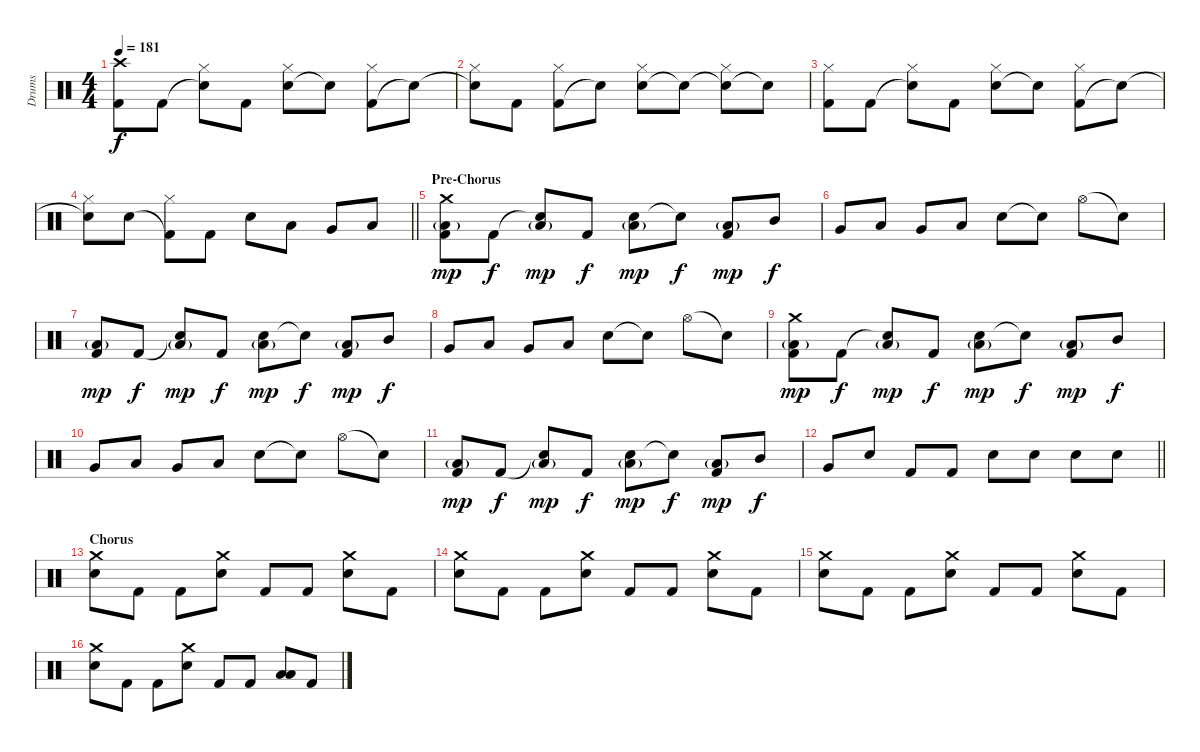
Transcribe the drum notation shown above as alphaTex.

\track ("Drums" "Drums") {instrument percussion}
\staff {score}
\articulation defaults
\ts (4 4)
\tempo 181
\clef neutral
\ks c
("Kick (hit) 2" "Crash high (hit)").8{dy f} "Kick (hit) 2".8 ("Snare (hit)"{t} "Hi-Hat (closed)").8 "Kick (hit) 2".8 ("Electric Snare (hit)" "Hi-Hat (closed)").8 "Snare (hit)"{t}.8 ("Kick (hit) 2" "Hi-Hat (closed)").8 "Snare (hit)"{t}.8 |
("Snare (hit)"{t} "Hi-Hat (closed)").8 "Kick (hit) 2".8 ("Kick (hit) 2" "Hi-Hat (closed)").8 "Snare (hit)"{t}.8 ("Electric Snare (hit)" "Hi-Hat (closed)").8 "Snare (hit)"{t}.8 ("Snare (hit)"{t} "Hi-Hat (closed)").8 "Snare (hit)"{t}.8 |
("Kick (hit) 2" "Hi-Hat (closed)").8 "Kick (hit) 2".8 ("Snare (hit)"{t} "Hi-Hat (closed)").8 "Kick (hit) 2".8 ("Electric Snare (hit)" "Hi-Hat (closed)").8 "Snare (hit)"{t}.8 ("Kick (hit) 2" "Hi-Hat (closed)").8 "Snare (hit)"{t}.8 |
\barLineRight lightlight
("Snare (hit)"{t} "Hi-Hat (closed)").8 "Electric Snare (hit)".8 ("Kick (hit) 2"{t} "Hi-Hat (closed)").8 "Kick (hit) 2".8 "Electric Snare (hit)".8 "Low Tom (hit)".8 "Very Low Tom (hit)".8 "Low Floor Tom (hit)".8 |
\section ("" "Pre-Chorus")
("Kick (hit) 2" "Low Floor Tom (hit)"{g} "Crash medium (hit)").8{dy mp} "Kick (hit) 2".8{dy f} ("Snare (hit)"{t} "Low Floor Tom (hit)"{g}).8{dy mp} "Kick (hit) 2".8{dy f} ("Electric Snare (hit)" "Low Floor Tom (hit)"{g}).8{dy mp} "Snare (hit)"{t}.8{dy f} ("Kick (hit) 2" "Low Floor Tom (hit)"{g}).8{dy mp} "Mid Tom (hit)".8{dy f} |
"Very Low Tom (hit)".8 "Low Tom (hit)".8 "Very Low Tom (hit)".8 "Low Floor Tom (hit)".8 "Electric Snare (hit)".8 "Snare (hit)"{t}.8 "Hi-Hat (open)".8 "Snare (hit)"{t}.8 |
("Kick (hit) 2" "Low Floor Tom (hit)"{g}).8{dy mp} "Kick (hit) 2".8{dy f} ("Snare (hit)"{t} "Low Floor Tom (hit)"{g}).8{dy mp} "Kick (hit) 2".8{dy f} ("Electric Snare (hit)" "Low Floor Tom (hit)"{g}).8{dy mp} "Snare (hit)"{t}.8{dy f} ("Kick (hit) 2" "Low Floor Tom (hit)"{g}).8{dy mp} "Mid Tom (hit)".8{dy f} |
"Very Low Tom (hit)".8 "Low Tom (hit)".8 "Very Low Tom (hit)".8 "Low Floor Tom (hit)".8 "Electric Snare (hit)".8 "Snare (hit)"{t}.8 "Hi-Hat (open)".8 "Snare (hit)"{t}.8 |
("Kick (hit) 2" "Low Floor Tom (hit)"{g} "Crash medium (hit)").8{dy mp} "Kick (hit) 2".8{dy f} ("Snare (hit)"{t} "Low Floor Tom (hit)"{g}).8{dy mp} "Kick (hit) 2".8{dy f} ("Electric Snare (hit)" "Low Floor Tom (hit)"{g}).8{dy mp} "Snare (hit)"{t}.8{dy f} ("Kick (hit) 2" "Low Floor Tom (hit)"{g}).8{dy mp} "Mid Tom (hit)".8{dy f} |
"Very Low Tom (hit)".8 "Low Tom (hit)".8 "Very Low Tom (hit)".8 "Low Floor Tom (hit)".8 "Electric Snare (hit)".8 "Snare (hit)"{t}.8 "Hi-Hat (open)".8 "Snare (hit)"{t}.8 |
("Kick (hit) 2" "Low Floor Tom (hit)"{g}).8{dy mp} "Kick (hit) 2".8{dy f} ("Snare (hit)"{t} "Low Floor Tom (hit)"{g}).8{dy mp} "Kick (hit) 2".8{dy f} ("Electric Snare (hit)" "Low Floor Tom (hit)"{g}).8{dy mp} "Snare (hit)"{t}.8{dy f} ("Kick (hit) 2" "Low Floor Tom (hit)"{g}).8{dy mp} "Mid Tom (hit)".8{dy f} |
\barLineRight lightlight "Very Low Tom (hit)".8 "Electric Snare (hit)".8 "Kick (hit) 2".8 "Kick (hit) 2".8 "Electric Snare (hit)".8 "Electric Snare (hit)".8 "Electric Snare (hit)".8 "Electric Snare (hit)".8
|
\section ("" "Chorus")
("Electric Snare (hit)" "Crash medium (hit)").8 "Kick (hit) 2".8 "Kick (hit) 2".8 ("Electric Snare (hit)" "Crash medium (hit)").8 "Kick (hit) 2".8 "Kick (hit) 2".8 ("Electric Snare (hit)" "Crash medium (hit)").8 "Kick (hit) 2".8 |
("Electric Snare (hit)" "Crash medium (hit)").8 "Kick (hit) 2".8 "Kick (hit) 2".8 ("Electric Snare (hit)" "Crash medium (hit)").8 "Kick (hit) 2".8 "Kick (hit) 2".8 ("Electric Snare (hit)" "Crash medium (hit)").8 "Kick (hit) 2".8 |
("Electric Snare (hit)" "Crash medium (hit)").8 "Kick (hit) 2".8 "Kick (hit) 2".8 ("Electric Snare (hit)" "Crash medium (hit)").8 "Kick (hit) 2".8 "Kick (hit) 2".8 ("Electric Snare (hit)" "Crash medium (hit)").8 "Kick (hit) 2".8 |
("Electric Snare (hit)" "Crash medium (hit)").8 "Kick (hit) 2".8 "Kick (hit) 2".8 ("Electric Snare (hit)" "Crash medium (hit)").8 "Kick (hit) 2".8 "Kick (hit) 2".8 ("Low Tom (hit)" "Low Floor Tom (hit)").8 "Kick (hit) 2".8
